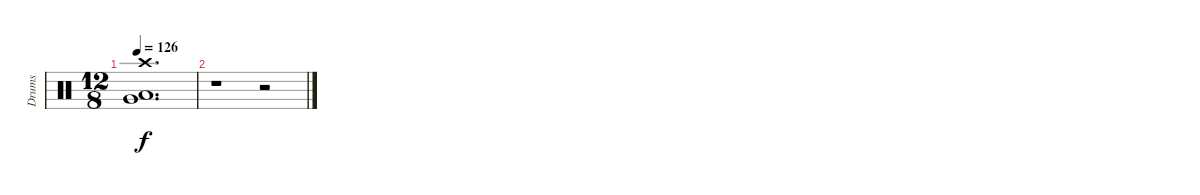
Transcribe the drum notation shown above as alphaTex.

\track ("Drums" "Drums") {instrument percussion}
\staff {score}
\articulation defaults
\ts (12 8)
\tempo 126
\clef neutral
\ks c
("Crash high (hit)" "Low Tom (hit)" "Very Low Tom (hit)").1{d dy f} |
r.1 r.2
